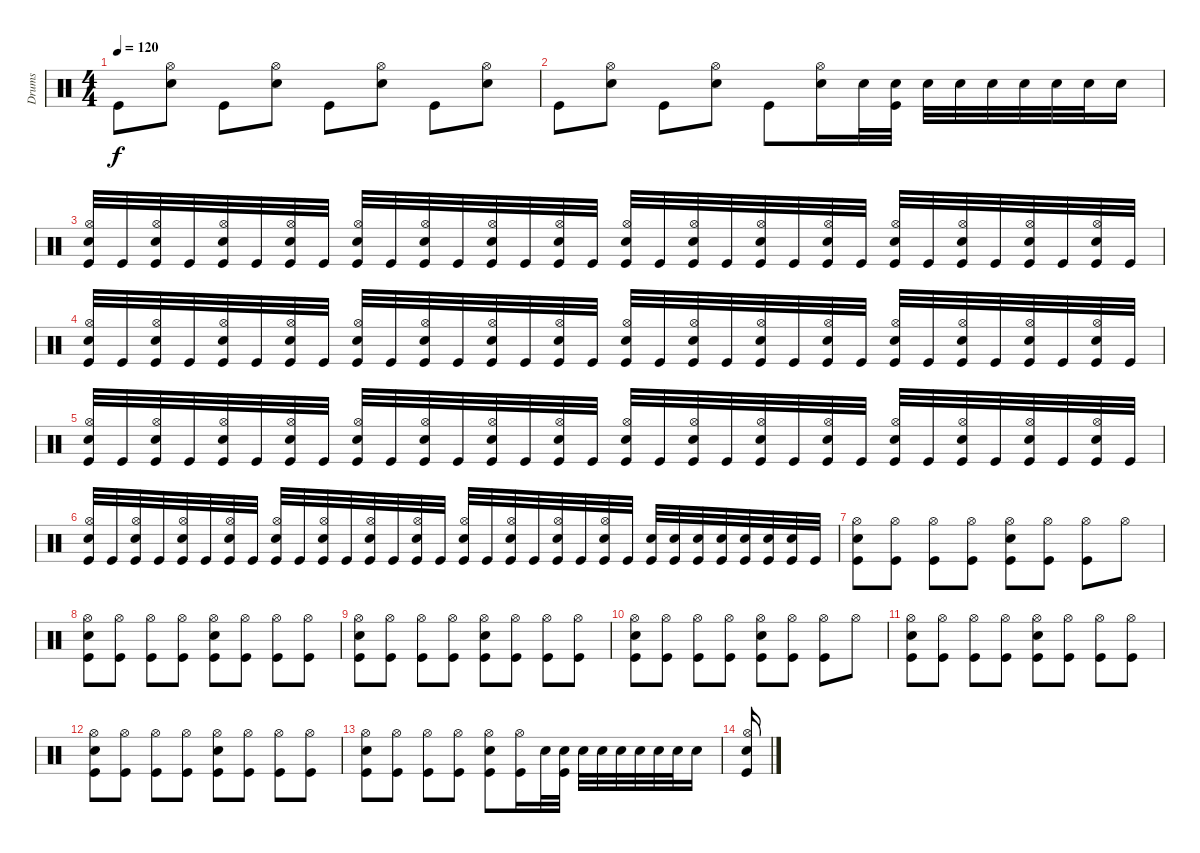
\track ("Drums" "Drums") {instrument percussion}
\staff {score}
\articulation defaults
\ts (4 4)
\tempo 120
\clef neutral
\ks c "Kick (hit)".8{dy f}
("Hi-Hat (open)" "Electric Snare (hit)").8 "Kick (hit)".8 ("Hi-Hat (open)" "Electric Snare (hit)").8 "Kick (hit)".8 ("Hi-Hat (open)" "Electric Snare (hit)").8 "Kick (hit)".8 ("Hi-Hat (open)" "Electric Snare (hit)").8 |
"Kick (hit)".8 ("Hi-Hat (open)" "Electric Snare (hit)").8 "Kick (hit)".8 ("Hi-Hat (open)" "Electric Snare (hit)").8 "Kick (hit)".8 ("Hi-Hat (open)" "Electric Snare (hit)").16 "Electric Snare (hit)".32 ("Electric Snare (hit)" "Kick (hit)").32 "Electric Snare (hit)".32 "Electric Snare (hit)".32 "Electric Snare (hit)".32 "Electric Snare (hit)".32 "Electric Snare (hit)".32 "Electric Snare (hit)".32 "Electric Snare (hit)".16 |
("Hi-Hat (open)" "Electric Snare (hit)" "Kick (hit)").32 "Kick (hit)".32 ("Hi-Hat (open)" "Electric Snare (hit)" "Kick (hit)").32 "Kick (hit)".32 ("Hi-Hat (open)" "Electric Snare (hit)" "Kick (hit)").32 "Kick (hit)".32 ("Hi-Hat (open)" "Electric Snare (hit)" "Kick (hit)").32 "Kick (hit)".32 ("Hi-Hat (open)" "Electric Snare (hit)" "Kick (hit)").32 "Kick (hit)".32 ("Hi-Hat (open)" "Electric Snare (hit)" "Kick (hit)").32 "Kick (hit)".32 ("Hi-Hat (open)" "Electric Snare (hit)" "Kick (hit)").32 "Kick (hit)".32 ("Hi-Hat (open)" "Electric Snare (hit)" "Kick (hit)").32 "Kick (hit)".32 ("Hi-Hat (open)" "Electric Snare (hit)" "Kick (hit)").32 "Kick (hit)".32 ("Hi-Hat (open)" "Electric Snare (hit)" "Kick (hit)").32 "Kick (hit)".32 ("Hi-Hat (open)" "Electric Snare (hit)" "Kick (hit)").32 "Kick (hit)".32 ("Hi-Hat (open)" "Electric Snare (hit)" "Kick (hit)").32 "Kick (hit)".32 ("Hi-Hat (open)" "Electric Snare (hit)" "Kick (hit)").32 "Kick (hit)".32 ("Hi-Hat (open)" "Electric Snare (hit)" "Kick (hit)").32 "Kick (hit)".32 ("Hi-Hat (open)" "Electric Snare (hit)" "Kick (hit)").32 "Kick (hit)".32 ("Hi-Hat (open)" "Electric Snare (hit)" "Kick (hit)").32 "Kick (hit)".32 |
("Hi-Hat (open)" "Electric Snare (hit)" "Kick (hit)").32 "Kick (hit)".32 ("Hi-Hat (open)" "Electric Snare (hit)" "Kick (hit)").32 "Kick (hit)".32 ("Hi-Hat (open)" "Electric Snare (hit)" "Kick (hit)").32 "Kick (hit)".32 ("Hi-Hat (open)" "Electric Snare (hit)" "Kick (hit)").32 "Kick (hit)".32 ("Hi-Hat (open)" "Electric Snare (hit)" "Kick (hit)").32 "Kick (hit)".32 ("Hi-Hat (open)" "Electric Snare (hit)" "Kick (hit)").32 "Kick (hit)".32 ("Hi-Hat (open)" "Electric Snare (hit)" "Kick (hit)").32 "Kick (hit)".32 ("Hi-Hat (open)" "Electric Snare (hit)" "Kick (hit)").32 "Kick (hit)".32 ("Hi-Hat (open)" "Electric Snare (hit)" "Kick (hit)").32 "Kick (hit)".32 ("Hi-Hat (open)" "Electric Snare (hit)" "Kick (hit)").32 "Kick (hit)".32 ("Hi-Hat (open)" "Electric Snare (hit)" "Kick (hit)").32 "Kick (hit)".32 ("Hi-Hat (open)" "Electric Snare (hit)" "Kick (hit)").32 "Kick (hit)".32 ("Hi-Hat (open)" "Electric Snare (hit)" "Kick (hit)").32 "Kick (hit)".32 ("Hi-Hat (open)" "Electric Snare (hit)" "Kick (hit)").32 "Kick (hit)".32 ("Hi-Hat (open)" "Electric Snare (hit)" "Kick (hit)").32 "Kick (hit)".32 ("Hi-Hat (open)" "Electric Snare (hit)" "Kick (hit)").32 "Kick (hit)".32 |
("Hi-Hat (open)" "Electric Snare (hit)" "Kick (hit)").32 "Kick (hit)".32 ("Hi-Hat (open)" "Electric Snare (hit)" "Kick (hit)").32 "Kick (hit)".32 ("Hi-Hat (open)" "Electric Snare (hit)" "Kick (hit)").32 "Kick (hit)".32 ("Hi-Hat (open)" "Electric Snare (hit)" "Kick (hit)").32 "Kick (hit)".32 ("Hi-Hat (open)" "Electric Snare (hit)" "Kick (hit)").32 "Kick (hit)".32 ("Hi-Hat (open)" "Electric Snare (hit)" "Kick (hit)").32 "Kick (hit)".32 ("Hi-Hat (open)" "Electric Snare (hit)" "Kick (hit)").32 "Kick (hit)".32 ("Hi-Hat (open)" "Electric Snare (hit)" "Kick (hit)").32 "Kick (hit)".32 ("Hi-Hat (open)" "Electric Snare (hit)" "Kick (hit)").32 "Kick (hit)".32 ("Hi-Hat (open)" "Electric Snare (hit)" "Kick (hit)").32 "Kick (hit)".32 ("Hi-Hat (open)" "Electric Snare (hit)" "Kick (hit)").32 "Kick (hit)".32 ("Hi-Hat (open)" "Electric Snare (hit)" "Kick (hit)").32 "Kick (hit)".32 ("Hi-Hat (open)" "Electric Snare (hit)" "Kick (hit)").32 "Kick (hit)".32 ("Hi-Hat (open)" "Electric Snare (hit)" "Kick (hit)").32 "Kick (hit)".32 ("Hi-Hat (open)" "Electric Snare (hit)" "Kick (hit)").32 "Kick (hit)".32 ("Hi-Hat (open)" "Electric Snare (hit)" "Kick (hit)").32 "Kick (hit)".32 |
("Hi-Hat (open)" "Electric Snare (hit)" "Kick (hit)").32 "Kick (hit)".32 ("Hi-Hat (open)" "Electric Snare (hit)" "Kick (hit)").32 "Kick (hit)".32 ("Hi-Hat (open)" "Electric Snare (hit)" "Kick (hit)").32 "Kick (hit)".32 ("Hi-Hat (open)" "Electric Snare (hit)" "Kick (hit)").32 "Kick (hit)".32 ("Hi-Hat (open)" "Electric Snare (hit)" "Kick (hit)").32 "Kick (hit)".32 ("Hi-Hat (open)" "Electric Snare (hit)" "Kick (hit)").32 "Kick (hit)".32 ("Hi-Hat (open)" "Electric Snare (hit)" "Kick (hit)").32 "Kick (hit)".32 ("Hi-Hat (open)" "Electric Snare (hit)" "Kick (hit)").32 "Kick (hit)".32 ("Hi-Hat (open)" "Electric Snare (hit)" "Kick (hit)").32 "Kick (hit)".32 ("Hi-Hat (open)" "Electric Snare (hit)" "Kick (hit)").32 "Kick (hit)".32 ("Hi-Hat (open)" "Electric Snare (hit)" "Kick (hit)").32 "Kick (hit)".32 ("Hi-Hat (open)" "Electric Snare (hit)" "Kick (hit)").32 "Kick (hit)".32 ("Electric Snare (hit)" "Kick (hit)").32 ("Electric Snare (hit)" "Kick (hit)").32 ("Electric Snare (hit)" "Kick (hit)").32 ("Electric Snare (hit)" "Kick (hit)").32 ("Electric Snare (hit)" "Kick (hit)").32 ("Electric Snare (hit)" "Kick (hit)").32 ("Electric Snare (hit)" "Kick (hit)").32 "Kick (hit)".32 |
("Hi-Hat (open)" "Electric Snare (hit)" "Kick (hit)").8 ("Hi-Hat (open)" "Kick (hit)").8 ("Hi-Hat (open)" "Kick (hit)").8 ("Hi-Hat (open)" "Kick (hit)").8 ("Hi-Hat (open)" "Electric Snare (hit)" "Kick (hit)").8 ("Hi-Hat (open)" "Kick (hit)").8 ("Hi-Hat (open)" "Kick (hit)").8 "Hi-Hat (open)".8 |
("Hi-Hat (open)" "Electric Snare (hit)" "Kick (hit)").8 ("Hi-Hat (open)" "Kick (hit)").8 ("Hi-Hat (open)" "Kick (hit)").8 ("Hi-Hat (open)" "Kick (hit)").8 ("Hi-Hat (open)" "Electric Snare (hit)" "Kick (hit)").8 ("Hi-Hat (open)" "Kick (hit)").8 ("Hi-Hat (open)" "Kick (hit)").8 ("Hi-Hat (open)" "Kick (hit)").8 |
("Hi-Hat (open)" "Electric Snare (hit)" "Kick (hit)").8 ("Hi-Hat (open)" "Kick (hit)").8 ("Hi-Hat (open)" "Kick (hit)").8 ("Hi-Hat (open)" "Kick (hit)").8 ("Hi-Hat (open)" "Electric Snare (hit)" "Kick (hit)").8 ("Hi-Hat (open)" "Kick (hit)").8 ("Hi-Hat (open)" "Kick (hit)").8 ("Hi-Hat (open)" "Kick (hit)").8 |
("Hi-Hat (open)" "Electric Snare (hit)" "Kick (hit)").8 ("Hi-Hat (open)" "Kick (hit)").8 ("Hi-Hat (open)" "Kick (hit)").8 ("Hi-Hat (open)" "Kick (hit)").8 ("Hi-Hat (open)" "Electric Snare (hit)" "Kick (hit)").8 ("Hi-Hat (open)" "Kick (hit)").8 ("Hi-Hat (open)" "Kick (hit)").8 "Hi-Hat (open)".8 |
("Hi-Hat (open)" "Electric Snare (hit)" "Kick (hit)").8 ("Hi-Hat (open)" "Kick (hit)").8 ("Hi-Hat (open)" "Kick (hit)").8 ("Hi-Hat (open)" "Kick (hit)").8 ("Hi-Hat (open)" "Electric Snare (hit)" "Kick (hit)").8 ("Hi-Hat (open)" "Kick (hit)").8 ("Hi-Hat (open)" "Kick (hit)").8 ("Hi-Hat (open)" "Kick (hit)").8 |
("Hi-Hat (open)" "Electric Snare (hit)" "Kick (hit)").8 ("Hi-Hat (open)" "Kick (hit)").8 ("Hi-Hat (open)" "Kick (hit)").8 ("Hi-Hat (open)" "Kick (hit)").8 ("Hi-Hat (open)" "Electric Snare (hit)" "Kick (hit)").8 ("Hi-Hat (open)" "Kick (hit)").8 ("Hi-Hat (open)" "Kick (hit)").8 ("Hi-Hat (open)" "Kick (hit)").8 |
("Hi-Hat (open)" "Electric Snare (hit)" "Kick (hit)").8 ("Hi-Hat (open)" "Kick (hit)").8 ("Hi-Hat (open)" "Kick (hit)").8 ("Hi-Hat (open)" "Kick (hit)").8 ("Hi-Hat (open)" "Electric Snare (hit)" "Kick (hit)").8 ("Hi-Hat (open)" "Kick (hit)").16 "Electric Snare (hit)".32 ("Electric Snare (hit)" "Kick (hit)").32 "Electric Snare (hit)".32 "Electric Snare (hit)".32 "Electric Snare (hit)".32 "Electric Snare (hit)".32 "Electric Snare (hit)".32 "Electric Snare (hit)".32 "Electric Snare (hit)".16 |
("Hi-Hat (open)" "Electric Snare (hit)" "Kick (hit)").16
